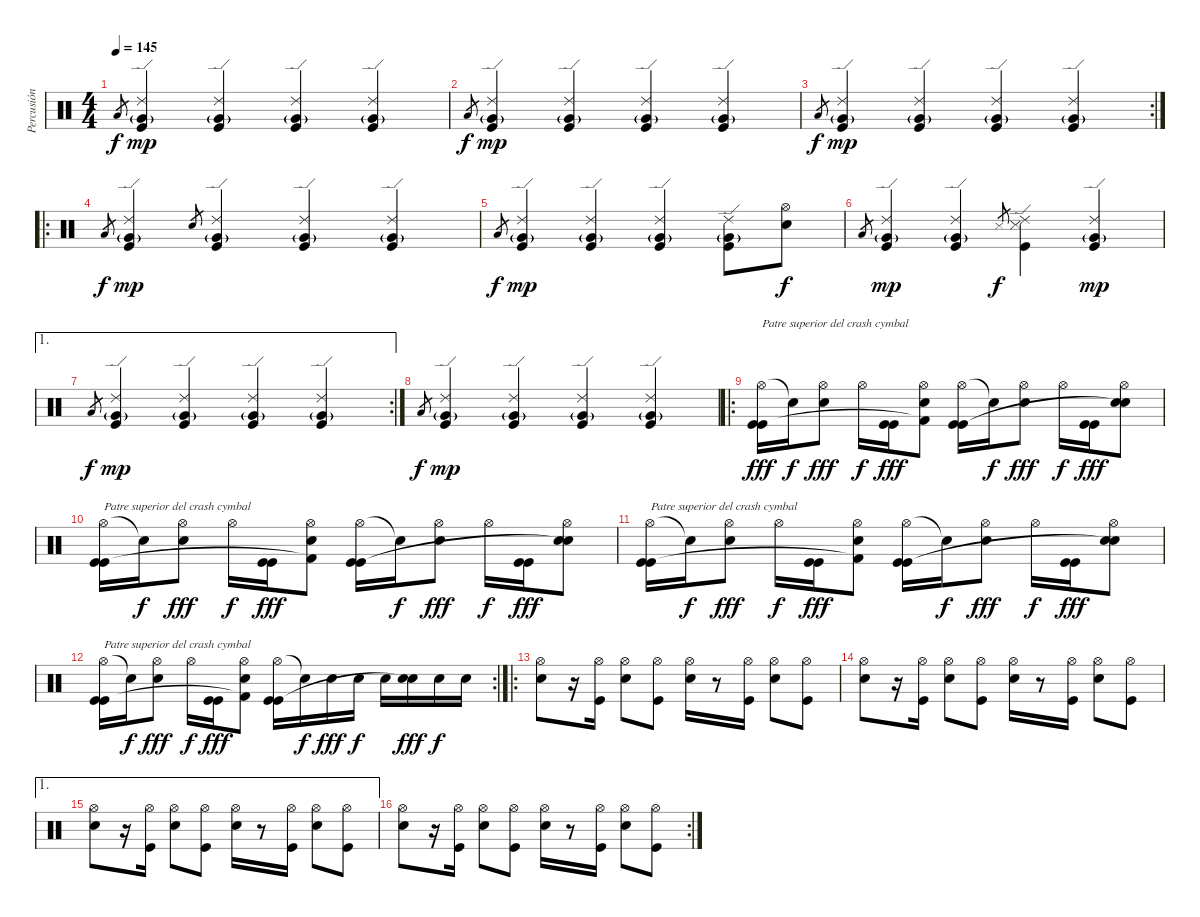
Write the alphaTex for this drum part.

\track ("Percusión" "Percusión") {instrument percussion}
\staff {score}
\articulation defaults
\ts (4 4)
\tempo 145
\clef neutral
\ks c "Low Floor Tom (hit)".8{gr dy f}
("Ride (edge) 2" "Very Low Tom (hit)"{g} "Kick (hit)").4{dy mp} ("Ride (edge) 2" "Very Low Tom (hit)"{g} "Kick (hit)").4 ("Ride (edge) 2" "Very Low Tom (hit)"{g} "Kick (hit)").4 ("Ride (edge) 2" "Very Low Tom (hit)"{g} "Kick (hit)").4 |
"Low Floor Tom (hit)".8{gr dy f} ("Ride (edge) 2" "Very Low Tom (hit)"{g} "Kick (hit)").4{dy mp} ("Ride (edge) 2" "Very Low Tom (hit)"{g} "Kick (hit)").4 ("Ride (edge) 2" "Very Low Tom (hit)"{g} "Kick (hit)").4 ("Ride (edge) 2" "Very Low Tom (hit)"{g} "Kick (hit)").4 |
\rc 2 "Low Floor Tom (hit)".8{gr dy f}
("Ride (edge) 2" "Very Low Tom (hit)"{g} "Kick (hit)").4{dy mp} ("Ride (edge) 2" "Very Low Tom (hit)"{g} "Kick (hit)").4 ("Ride (edge) 2" "Very Low Tom (hit)"{g} "Kick (hit)").4 ("Ride (edge) 2" "Very Low Tom (hit)"{g} "Kick (hit)").4 |
\ro "Low Floor Tom (hit)".8{gr dy f}
("Ride (edge) 2" "Very Low Tom (hit)"{g} "Kick (hit)").4{dy mp} "Electric Snare (hit)".8{gr} ("Ride (edge) 2" "Very Low Tom (hit)"{g} "Kick (hit)").4 ("Ride (edge) 2" "Very Low Tom (hit)"{g} "Kick (hit)").4 ("Ride (edge) 2" "Very Low Tom (hit)"{g} "Kick (hit)").4 |
"Low Floor Tom (hit)".8{gr dy f} ("Ride (edge) 2" "Very Low Tom (hit)"{g} "Kick (hit)").4{dy mp} ("Ride (edge) 2" "Very Low Tom (hit)"{g} "Kick (hit)").4 ("Ride (edge) 2" "Very Low Tom (hit)"{g} "Kick (hit)").4 ("Ride (edge) 2" "Very Low Tom (hit)"{g} "Kick (hit)").8 ("Hi-Hat (open)" "Electric Snare (hit)").8{dy f} |
"Low Floor Tom (hit)".8{gr} ("Ride (edge) 2" "Very Low Tom (hit)"{g} "Kick (hit)").4{dy mp} ("Ride (edge) 2" "Very Low Tom (hit)"{g} "Kick (hit)").4 "Metronome (hit)".8{gr dy f} ("Ride (edge) 2" "Metronome (hit)" "Kick (hit)").4 ("Ride (edge) 2" "Very Low Tom (hit)"{g} "Kick (hit)").4{dy mp} |
\ae 1
\rc 2 "Low Floor Tom (hit)".8{gr dy f}
("Ride (edge) 2" "Very Low Tom (hit)"{g} "Kick (hit)").4{dy mp} ("Ride (edge) 2" "Very Low Tom (hit)"{g} "Kick (hit)").4 ("Ride (edge) 2" "Very Low Tom (hit)"{g} "Kick (hit)").4 ("Ride (edge) 2" "Very Low Tom (hit)"{g} "Kick (hit)").4 |
"Low Floor Tom (hit)".8{gr dy f} ("Ride (edge) 2" "Very Low Tom (hit)"{g} "Kick (hit)").4{dy mp} ("Ride (edge) 2" "Very Low Tom (hit)"{g} "Kick (hit)").4 ("Ride (edge) 2" "Very Low Tom (hit)"{g} "Kick (hit)").4 ("Ride (edge) 2" "Very Low Tom (hit)"{g} "Kick (hit)").4 |
\ro
("Hi-Hat (open)" "Kick (hit)" "Kick (hit)").16{txt "Patre superior del crash cymbal" dy fff} "Snare (hit)"{t}.16{dy f} ("Hi-Hat (open)" "Electric Snare (hit)").8{dy fff} "Hi-Hat (open)".16{dy f} ("Kick (hit)" "Kick (hit)").16{dy fff} ("Hi-Hat (open)" "Electric Snare (hit)" "Kick (hit) 2"{t}).8 ("Hi-Hat (open)" "Kick (hit)" "Kick (hit)").16 "Snare (hit)"{t}.16{dy f} ("Hi-Hat (open)" "Electric Snare (hit)").8{dy fff} "Hi-Hat (open)".16{dy f} ("Kick (hit)" "Kick (hit)").16{dy fff} ("Hi-Hat (open)" "Electric Snare (hit)" "Electric Snare (hit)"{t}).8 |
("Hi-Hat (open)" "Kick (hit)" "Kick (hit)").16{txt "Patre superior del crash cymbal"} "Snare (hit)"{t}.16{dy f} ("Hi-Hat (open)" "Electric Snare (hit)").8{dy fff} "Hi-Hat (open)".16{dy f} ("Kick (hit)" "Kick (hit)").16{dy fff} ("Hi-Hat (open)" "Electric Snare (hit)" "Kick (hit) 2"{t}).8 ("Hi-Hat (open)" "Kick (hit)" "Kick (hit)").16 "Snare (hit)"{t}.16{dy f} ("Hi-Hat (open)" "Electric Snare (hit)").8{dy fff} "Hi-Hat (open)".16{dy f} ("Kick (hit)" "Kick (hit)").16{dy fff} ("Hi-Hat (open)" "Electric Snare (hit)" "Electric Snare (hit)"{t}).8 |
("Hi-Hat (open)" "Kick (hit)" "Kick (hit)").16{txt "Patre superior del crash cymbal"} "Snare (hit)"{t}.16{dy f} ("Hi-Hat (open)" "Electric Snare (hit)").8{dy fff} "Hi-Hat (open)".16{dy f} ("Kick (hit)" "Kick (hit)").16{dy fff} ("Hi-Hat (open)" "Electric Snare (hit)" "Kick (hit) 2"{t}).8 ("Hi-Hat (open)" "Kick (hit)" "Kick (hit)").16 "Snare (hit)"{t}.16{dy f} ("Hi-Hat (open)" "Electric Snare (hit)").8{dy fff} "Hi-Hat (open)".16{dy f} ("Kick (hit)" "Kick (hit)").16{dy fff} ("Hi-Hat (open)" "Electric Snare (hit)" "Electric Snare (hit)"{t}).8 |
\rc 2
("Hi-Hat (open)" "Kick (hit)" "Kick (hit)").16{txt "Patre superior del crash cymbal"} "Snare (hit)"{t}.16{dy f} ("Hi-Hat (open)" "Electric Snare (hit)").8{dy fff} "Hi-Hat (open)".16{dy f} ("Kick (hit)" "Kick (hit)").16{dy fff} ("Hi-Hat (open)" "Electric Snare (hit)" "Kick (hit) 2"{t}).8 ("Hi-Hat (open)" "Kick (hit)" "Kick (hit)").16 "Snare (hit)"{t}.16{dy f} "Electric Snare (hit)".16{dy fff} "Electric Snare (hit)".16{dy f} "Electric Snare (hit)".16 ("Electric Snare (hit)" "Electric Snare (hit)"{t}).16{dy fff} "Electric Snare (hit)".16{dy f} "Electric Snare (hit)".16 |
\ro
("Hi-Hat (open)" "Electric Snare (hit)").8 r.16 ("Hi-Hat (open)" "Kick (hit)").16 ("Hi-Hat (open)" "Electric Snare (hit)").8 ("Hi-Hat (open)" "Kick (hit)").8 ("Hi-Hat (open)" "Electric Snare (hit)").16 r.8 ("Hi-Hat (open)" "Kick (hit)").16 ("Hi-Hat (open)" "Electric Snare (hit)").8 ("Hi-Hat (open)" "Kick (hit)").8 |
("Hi-Hat (open)" "Electric Snare (hit)").8 r.16 ("Hi-Hat (open)" "Kick (hit)").16 ("Hi-Hat (open)" "Electric Snare (hit)").8 ("Hi-Hat (open)" "Kick (hit)").8 ("Hi-Hat (open)" "Electric Snare (hit)").16 r.8 ("Hi-Hat (open)" "Kick (hit)").16 ("Hi-Hat (open)" "Electric Snare (hit)").8 ("Hi-Hat (open)" "Kick (hit)").8 |
\ae 1
("Hi-Hat (open)" "Electric Snare (hit)").8 r.16 ("Hi-Hat (open)" "Kick (hit)").16 ("Hi-Hat (open)" "Electric Snare (hit)").8 ("Hi-Hat (open)" "Kick (hit)").8 ("Hi-Hat (open)" "Electric Snare (hit)").16 r.8 ("Hi-Hat (open)" "Kick (hit)").16 ("Hi-Hat (open)" "Electric Snare (hit)").8 ("Hi-Hat (open)" "Kick (hit)").8 |
\rc 2
("Hi-Hat (open)" "Electric Snare (hit)").8 r.16 ("Hi-Hat (open)" "Kick (hit)").16 ("Hi-Hat (open)" "Electric Snare (hit)").8 ("Hi-Hat (open)" "Kick (hit)").8 ("Hi-Hat (open)" "Electric Snare (hit)").16 r.8 ("Hi-Hat (open)" "Kick (hit)").16 ("Hi-Hat (open)" "Electric Snare (hit)").8 ("Hi-Hat (open)" "Kick (hit)").8
